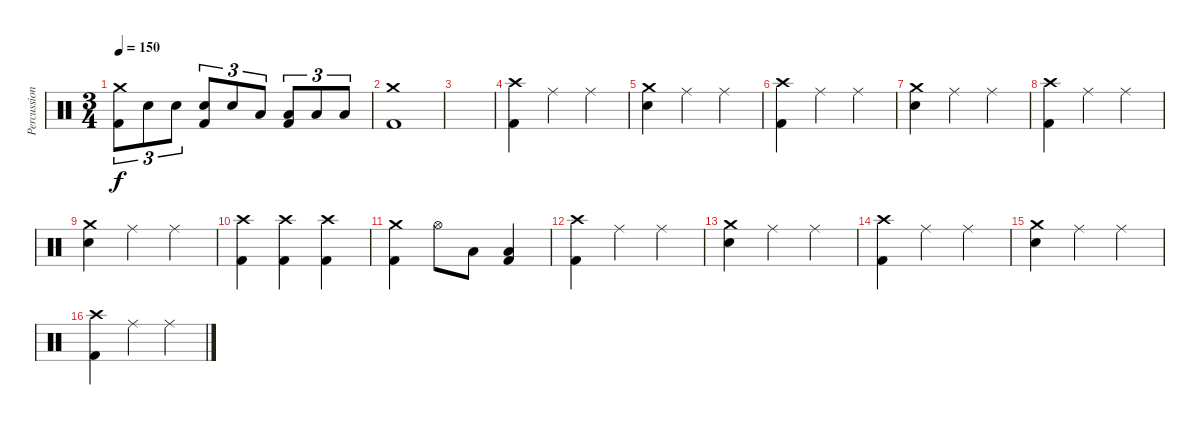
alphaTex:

\track ("Percussion" "Percussion") {instrument percussion}
\staff {score}
\articulation defaults
\ts (3 4)
\tempo 150
\clef neutral
\ks c
("Crash medium (hit)" "Kick (hit) 2").8{tu (3 2) dy f} "Electric Snare (hit)".8{tu (3 2)} "Electric Snare (hit)".8{tu (3 2)} ("Electric Snare (hit)" "Kick (hit) 2").8{tu (3 2)} "Electric Snare (hit)".8{tu (3 2)} "Low Tom (hit)".8{tu (3 2)} ("Low Tom (hit)" "Kick (hit) 2").8{tu (3 2)} "Low Floor Tom (hit)".8{tu (3 2)} "Low Floor Tom (hit)".8{tu (3 2)} |
("Crash medium (hit)" "Kick (hit) 2").1 |
|
("Crash high (hit)" "Kick (hit) 2").4 "Ride (middle)".4 "Ride (middle)".4 |
("Crash medium (hit)" "Electric Snare (hit)").4 "Ride (middle)".4 "Ride (middle)".4 |
("Crash high (hit)" "Kick (hit) 2").4 "Ride (middle)".4 "Ride (middle)".4 |
("Crash medium (hit)" "Electric Snare (hit)").4 "Ride (middle)".4 "Ride (middle)".4 |
("Crash high (hit)" "Kick (hit) 2").4 "Ride (middle)".4 "Ride (middle)".4 |
("Crash medium (hit)" "Electric Snare (hit)").4 "Ride (middle)".4 "Ride (middle)".4 |
("Crash high (hit)" "Kick (hit) 2").4 ("Crash high (hit)" "Kick (hit) 2").4 ("Crash high (hit)" "Kick (hit) 2").4 |
("Crash medium (hit)" "Kick (hit) 2").4 "Hi-Hat (open)".8 "Low Tom (hit)".8 ("Low Tom (hit)" "Kick (hit) 2").4 |
("Crash high (hit)" "Kick (hit) 2").4 "Ride (middle)".4 "Ride (middle)".4 |
("Crash medium (hit)" "Electric Snare (hit)").4 "Ride (middle)".4 "Ride (middle)".4 |
("Crash high (hit)" "Kick (hit) 2").4 "Ride (middle)".4 "Ride (middle)".4 |
("Crash medium (hit)" "Electric Snare (hit)").4 "Ride (middle)".4 "Ride (middle)".4 |
("Crash high (hit)" "Kick (hit) 2").4 "Ride (middle)".4 "Ride (middle)".4
